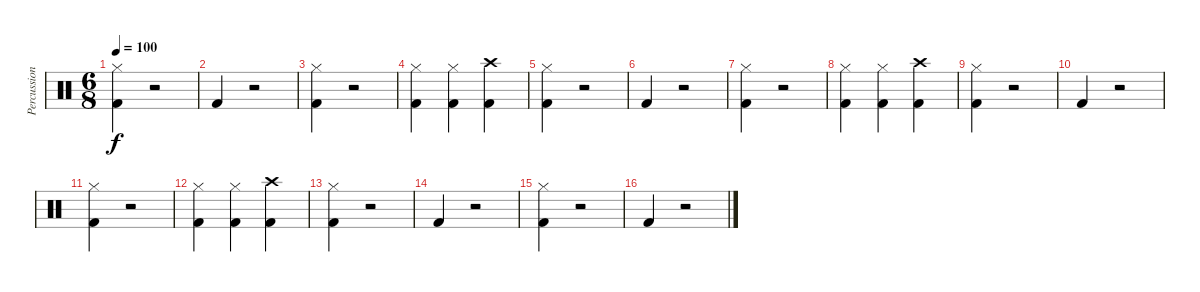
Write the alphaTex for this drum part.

\track ("Percussion" "Percussion") {instrument percussion}
\staff {score}
\articulation defaults
\ts (6 8)
\tempo 100
\clef neutral
\ks c
("Kick (hit) 2" "Hi-Hat (closed)").4{dy f} r.2 |
"Kick (hit) 2".4 r.2 |
("Kick (hit) 2" "Hi-Hat (closed)").4 r.2 |
("Kick (hit) 2" "Hi-Hat (closed)").4 ("Kick (hit) 2" "Hi-Hat (closed)").4 ("Kick (hit) 2" "Crash high (hit)").4 |
("Kick (hit) 2" "Hi-Hat (closed)").4 r.2 |
"Kick (hit) 2".4 r.2 |
("Kick (hit) 2" "Hi-Hat (closed)").4 r.2 |
("Kick (hit) 2" "Hi-Hat (closed)").4 ("Kick (hit) 2" "Hi-Hat (closed)").4 ("Kick (hit) 2" "Crash high (hit)").4 |
("Kick (hit) 2" "Hi-Hat (closed)").4 r.2 |
"Kick (hit) 2".4 r.2 |
("Kick (hit) 2" "Hi-Hat (closed)").4 r.2 |
("Kick (hit) 2" "Hi-Hat (closed)").4 ("Kick (hit) 2" "Hi-Hat (closed)").4 ("Kick (hit) 2" "Crash high (hit)").4 |
("Kick (hit) 2" "Hi-Hat (closed)").4 r.2 |
"Kick (hit) 2".4 r.2 |
("Kick (hit) 2" "Hi-Hat (closed)").4 r.2 |
"Kick (hit) 2".4 r.2
